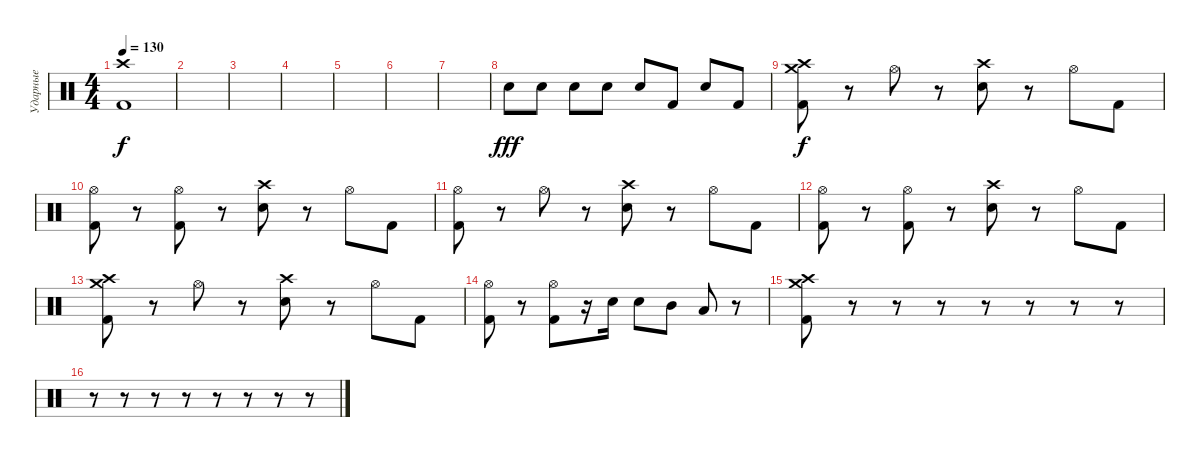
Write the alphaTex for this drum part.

\track ("Ударные" "Ударные") {instrument percussion}
\staff {score}
\articulation defaults
\ts (4 4)
\tempo 130
\clef neutral
\ks c
("Crash high (hit)" "Kick (hit) 2").1{dy f} |
|
|
|
|
|
|
"Electric Snare (hit)".8{dy fff} "Electric Snare (hit)".8 "Electric Snare (hit)".8 "Electric Snare (hit)".8 "Electric Snare (hit)".8 "Kick (hit) 2".8 "Electric Snare (hit)".8 "Kick (hit) 2".8 |
("Crash medium (hit)" "Crash high (hit)" "Kick (hit) 2").8{dy f} r.8 "Hi-Hat (open)".8 r.8 ("Crash high (hit)" "Electric Snare (hit)").8 r.8 "Hi-Hat (open)".8 "Kick (hit) 2".8 |
("Hi-Hat (open)" "Kick (hit) 2").8 r.8 ("Hi-Hat (open)" "Kick (hit) 2").8 r.8 ("Crash high (hit)" "Electric Snare (hit)").8 r.8 "Hi-Hat (open)".8 "Kick (hit) 2".8 |
("Hi-Hat (open)" "Kick (hit) 2").8 r.8 "Hi-Hat (open)".8 r.8 ("Crash high (hit)" "Electric Snare (hit)").8 r.8 "Hi-Hat (open)".8 "Kick (hit) 2".8 |
("Hi-Hat (open)" "Kick (hit) 2").8 r.8 ("Hi-Hat (open)" "Kick (hit) 2").8 r.8 ("Crash high (hit)" "Electric Snare (hit)").8 r.8 "Hi-Hat (open)".8 "Kick (hit) 2".8 |
("Crash medium (hit)" "Crash high (hit)" "Kick (hit) 2").8 r.8 "Hi-Hat (open)".8 r.8 ("Crash high (hit)" "Electric Snare (hit)").8 r.8 "Hi-Hat (open)".8 "Kick (hit) 2".8 |
("Hi-Hat (open)" "Kick (hit) 2").8 r.8 ("Hi-Hat (open)" "Kick (hit) 2").8 r.16 "Electric Snare (hit)".16 "Electric Snare (hit)".8 "Mid Tom (hit)".8 "Low Tom (hit)".8 r.8 |
("Crash medium (hit)" "Crash high (hit)" "Kick (hit) 2").8 r.8 r.8 r.8 r.8 r.8 r.8 r.8 |
r.8 r.8 r.8 r.8 r.8 r.8 r.8 r.8
